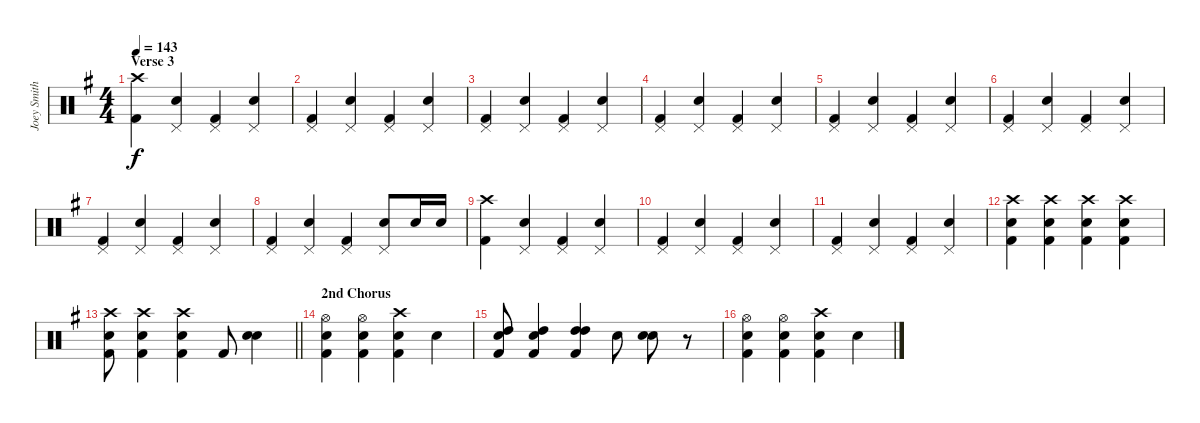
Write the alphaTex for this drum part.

\track ("Joey Smith" "Joey Smith") {instrument percussion}
\staff {score}
\articulation defaults
\ts (4 4)
\section ("" "Verse 3")
\tempo 143
\clef neutral
\ks g
("Crash high (hit)" "Kick (hit) 2").4{dy f} ("Pedal Hi-Hat (hit)" "Snare (hit) 2").4 ("Pedal Hi-Hat (hit)" "Kick (hit) 2").4 ("Pedal Hi-Hat (hit)" "Snare (hit) 2").4 |
("Pedal Hi-Hat (hit)" "Kick (hit) 2").4 ("Pedal Hi-Hat (hit)" "Snare (hit) 2").4 ("Pedal Hi-Hat (hit)" "Kick (hit) 2").4 ("Pedal Hi-Hat (hit)" "Snare (hit) 2").4 |
("Pedal Hi-Hat (hit)" "Kick (hit) 2").4 ("Pedal Hi-Hat (hit)" "Snare (hit) 2").4 ("Pedal Hi-Hat (hit)" "Kick (hit) 2").4 ("Pedal Hi-Hat (hit)" "Snare (hit) 2").4 |
("Pedal Hi-Hat (hit)" "Kick (hit) 2").4 ("Pedal Hi-Hat (hit)" "Snare (hit) 2").4 ("Pedal Hi-Hat (hit)" "Kick (hit) 2").4 ("Pedal Hi-Hat (hit)" "Snare (hit) 2").4 |
("Pedal Hi-Hat (hit)" "Kick (hit) 2").4 ("Pedal Hi-Hat (hit)" "Snare (hit) 2").4 ("Pedal Hi-Hat (hit)" "Kick (hit) 2").4 ("Pedal Hi-Hat (hit)" "Snare (hit) 2").4 |
("Pedal Hi-Hat (hit)" "Kick (hit) 2").4 ("Pedal Hi-Hat (hit)" "Snare (hit) 2").4 ("Pedal Hi-Hat (hit)" "Kick (hit) 2").4 ("Pedal Hi-Hat (hit)" "Snare (hit) 2").4 |
("Pedal Hi-Hat (hit)" "Kick (hit) 2").4 ("Pedal Hi-Hat (hit)" "Snare (hit) 2").4 ("Pedal Hi-Hat (hit)" "Kick (hit) 2").4 ("Pedal Hi-Hat (hit)" "Snare (hit) 2").4 |
("Pedal Hi-Hat (hit)" "Kick (hit) 2").4 ("Pedal Hi-Hat (hit)" "Snare (hit) 2").4 ("Pedal Hi-Hat (hit)" "Kick (hit) 2").4 ("Pedal Hi-Hat (hit)" "Snare (hit) 2").8 "Snare (hit) 2".16 "Snare (hit) 2".16 |
("Crash high (hit)" "Kick (hit) 2").4 ("Pedal Hi-Hat (hit)" "Snare (hit) 2").4 ("Pedal Hi-Hat (hit)" "Kick (hit) 2").4 ("Pedal Hi-Hat (hit)" "Snare (hit) 2").4 |
("Pedal Hi-Hat (hit)" "Kick (hit) 2").4 ("Pedal Hi-Hat (hit)" "Snare (hit) 2").4 ("Pedal Hi-Hat (hit)" "Kick (hit) 2").4 ("Pedal Hi-Hat (hit)" "Snare (hit) 2").4 |
("Pedal Hi-Hat (hit)" "Kick (hit) 2").4 ("Pedal Hi-Hat (hit)" "Snare (hit) 2").4 ("Pedal Hi-Hat (hit)" "Kick (hit) 2").4 ("Pedal Hi-Hat (hit)" "Snare (hit) 2").4 |
("Crash high (hit)" "Snare (hit) 2" "Kick (hit) 2").4 ("Crash high (hit)" "Snare (hit) 2" "Kick (hit) 2").4 ("Crash high (hit)" "Snare (hit) 2" "Kick (hit) 2").4 ("Crash high (hit)" "Snare (hit) 2" "Kick (hit) 2").4 |
\barLineRight lightlight
("Crash high (hit)" "Snare (hit) 2" "Kick (hit) 2").8 ("Crash high (hit)" "Snare (hit) 2" "Kick (hit) 2").4 ("Crash high (hit)" "Snare (hit) 2" "Kick (hit) 2").4 "Kick (hit) 2".8 ("Snare (hit) 2" "Snare (hit) 2").4{bd 240} |
\section ("" "2nd Chorus")
("Hi-Hat (open)" "Snare (hit) 2" "Kick (hit) 2").4 ("Hi-Hat (open)" "Snare (hit) 2" "Kick (hit) 2").4 ("Crash high (hit)" "Snare (hit) 2" "Kick (hit) 2").4 "Snare (hit) 2".4 |
("Snare (hit) 2" "High Tom (hit)" "Kick (hit) 2").8 ("Snare (hit) 2" "High Tom (hit)" "Kick (hit) 2").4 ("High Tom (hit)" "High Tom (hit)" "Kick (hit) 2").4 "Snare (hit) 2".8 ("Snare (hit) 2" "Snare (hit) 2").8{bd 240} r.8 |
("Hi-Hat (open)" "Snare (hit) 2" "Kick (hit) 2").4 ("Hi-Hat (open)" "Snare (hit) 2" "Kick (hit) 2").4 ("Crash high (hit)" "Snare (hit) 2" "Kick (hit) 2").4 "Snare (hit) 2".4
